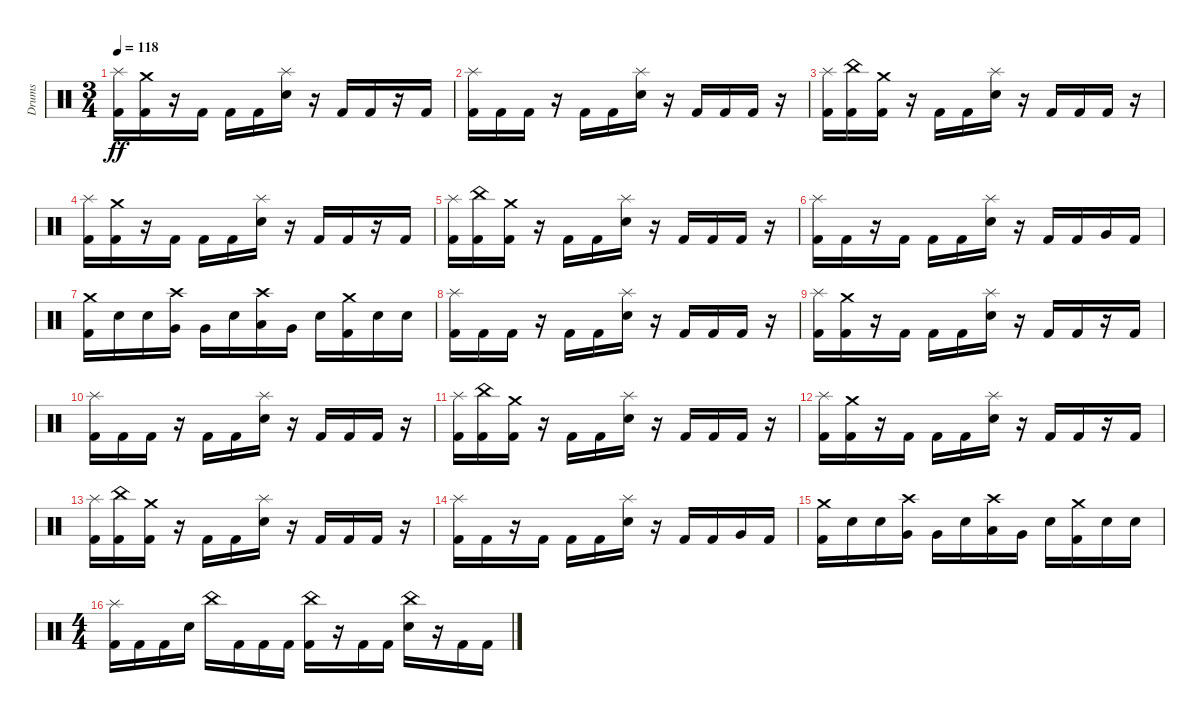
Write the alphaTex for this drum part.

\track ("Drums" "Drums") {instrument percussion}
\staff {score}
\articulation defaults
\ts (3 4)
\tempo 118
\clef neutral
\ks c
("Splash (hit)" "Kick (hit) 2").16{dy ff} ("Crash medium (hit)" "Kick (hit) 2").16 r.16 "Kick (hit) 2".16 "Kick (hit) 2".16 "Kick (hit) 2".16 ("Splash (hit)" "Electric Snare (hit)").16 r.16 "Kick (hit) 2".16 "Kick (hit) 2".16 r.16 "Kick (hit) 2".16 |
("Splash (hit)" "Kick (hit) 2").16 "Kick (hit) 2".16 "Kick (hit) 2".16 r.16 "Kick (hit) 2".16 "Kick (hit) 2".16 ("Splash (hit)" "Electric Snare (hit)").16 r.16 "Kick (hit) 2".16 "Kick (hit) 2".16 "Kick (hit) 2".16 r.16 |
("Splash (hit)" "Kick (hit) 2").16 ("China (hit)" "Kick (hit) 2").16 ("Crash medium (hit)" "Kick (hit) 2").16 r.16 "Kick (hit) 2".16 "Kick (hit) 2".16 ("Splash (hit)" "Electric Snare (hit)").16 r.16 "Kick (hit) 2".16 "Kick (hit) 2".16 "Kick (hit) 2".16 r.16 |
("Splash (hit)" "Kick (hit) 2").16 ("Crash medium (hit)" "Kick (hit) 2").16 r.16 "Kick (hit) 2".16 "Kick (hit) 2".16 "Kick (hit) 2".16 ("Splash (hit)" "Electric Snare (hit)").16 r.16 "Kick (hit) 2".16 "Kick (hit) 2".16 r.16 "Kick (hit) 2".16 |
("Splash (hit)" "Kick (hit) 2").16 ("China (hit)" "Kick (hit) 2").16 ("Crash medium (hit)" "Kick (hit) 2").16 r.16 "Kick (hit) 2".16 "Kick (hit) 2".16 ("Splash (hit)" "Electric Snare (hit)").16 r.16 "Kick (hit) 2".16 "Kick (hit) 2".16 "Kick (hit) 2".16 r.16 |
("Splash (hit)" "Kick (hit) 2").16 "Kick (hit) 2".16 r.16 "Kick (hit) 2".16 "Kick (hit) 2".16 "Kick (hit) 2".16 ("Splash (hit)" "Electric Snare (hit)").16 r.16 "Kick (hit) 2".16 "Kick (hit) 2".16 "Very Low Tom (hit)".16 "Kick (hit) 2".16 |
("Crash medium (hit)" "Kick (hit) 2").16 "Electric Snare (hit)".16 "Electric Snare (hit)".16 ("Crash high (hit)" "Very Low Tom (hit)").16 "Very Low Tom (hit)".16 "Electric Snare (hit)".16 ("Crash high (hit)" "Low Floor Tom (hit)").16 "Very Low Tom (hit)".16 "Electric Snare (hit)".16 ("Crash medium (hit)" "Kick (hit) 2").16 "Electric Snare (hit)".16 "Electric Snare (hit)".16 |
("Splash (hit)" "Kick (hit) 2").16 "Kick (hit) 2".16 "Kick (hit) 2".16 r.16 "Kick (hit) 2".16 "Kick (hit) 2".16 ("Splash (hit)" "Electric Snare (hit)").16 r.16 "Kick (hit) 2".16 "Kick (hit) 2".16 "Kick (hit) 2".16 r.16 |
("Splash (hit)" "Kick (hit) 2").16 ("Crash medium (hit)" "Kick (hit) 2").16 r.16 "Kick (hit) 2".16 "Kick (hit) 2".16 "Kick (hit) 2".16 ("Splash (hit)" "Electric Snare (hit)").16 r.16 "Kick (hit) 2".16 "Kick (hit) 2".16 r.16 "Kick (hit) 2".16 |
("Splash (hit)" "Kick (hit) 2").16 "Kick (hit) 2".16 "Kick (hit) 2".16 r.16 "Kick (hit) 2".16 "Kick (hit) 2".16 ("Splash (hit)" "Electric Snare (hit)").16 r.16 "Kick (hit) 2".16 "Kick (hit) 2".16 "Kick (hit) 2".16 r.16 |
("Splash (hit)" "Kick (hit) 2").16 ("China (hit)" "Kick (hit) 2").16 ("Crash medium (hit)" "Kick (hit) 2").16 r.16 "Kick (hit) 2".16 "Kick (hit) 2".16 ("Splash (hit)" "Electric Snare (hit)").16 r.16 "Kick (hit) 2".16 "Kick (hit) 2".16 "Kick (hit) 2".16 r.16 |
("Splash (hit)" "Kick (hit) 2").16 ("Crash medium (hit)" "Kick (hit) 2").16 r.16 "Kick (hit) 2".16 "Kick (hit) 2".16 "Kick (hit) 2".16 ("Splash (hit)" "Electric Snare (hit)").16 r.16 "Kick (hit) 2".16 "Kick (hit) 2".16 r.16 "Kick (hit) 2".16 |
("Splash (hit)" "Kick (hit) 2").16 ("China (hit)" "Kick (hit) 2").16 ("Crash medium (hit)" "Kick (hit) 2").16 r.16 "Kick (hit) 2".16 "Kick (hit) 2".16 ("Splash (hit)" "Electric Snare (hit)").16 r.16 "Kick (hit) 2".16 "Kick (hit) 2".16 "Kick (hit) 2".16 r.16 |
("Splash (hit)" "Kick (hit) 2").16 "Kick (hit) 2".16 r.16 "Kick (hit) 2".16 "Kick (hit) 2".16 "Kick (hit) 2".16 ("Splash (hit)" "Electric Snare (hit)").16 r.16 "Kick (hit) 2".16 "Kick (hit) 2".16 "Very Low Tom (hit)".16 "Kick (hit) 2".16 |
("Crash medium (hit)" "Kick (hit) 2").16 "Electric Snare (hit)".16 "Electric Snare (hit)".16 ("Crash high (hit)" "Very Low Tom (hit)").16 "Very Low Tom (hit)".16 "Electric Snare (hit)".16 ("Crash high (hit)" "Low Floor Tom (hit)").16 "Very Low Tom (hit)".16 "Electric Snare (hit)".16 ("Crash medium (hit)" "Kick (hit) 2").16 "Electric Snare (hit)".16 "Electric Snare (hit)".16 |
\ts (4 4)
\section ("" "")
("Splash (hit)" "Kick (hit) 2").16 "Kick (hit) 2".16 "Kick (hit) 2".16 "Electric Snare (hit)".16 "China (hit)".16 "Kick (hit) 2".16 "Kick (hit) 2".16 "Kick (hit) 2".16 ("China (hit)" "Kick (hit) 2").16 r.16 "Kick (hit) 2".16 "Kick (hit) 2".16 ("China (hit)" "Electric Snare (hit)").16 r.16 "Kick (hit) 2".16 "Kick (hit) 2".16
